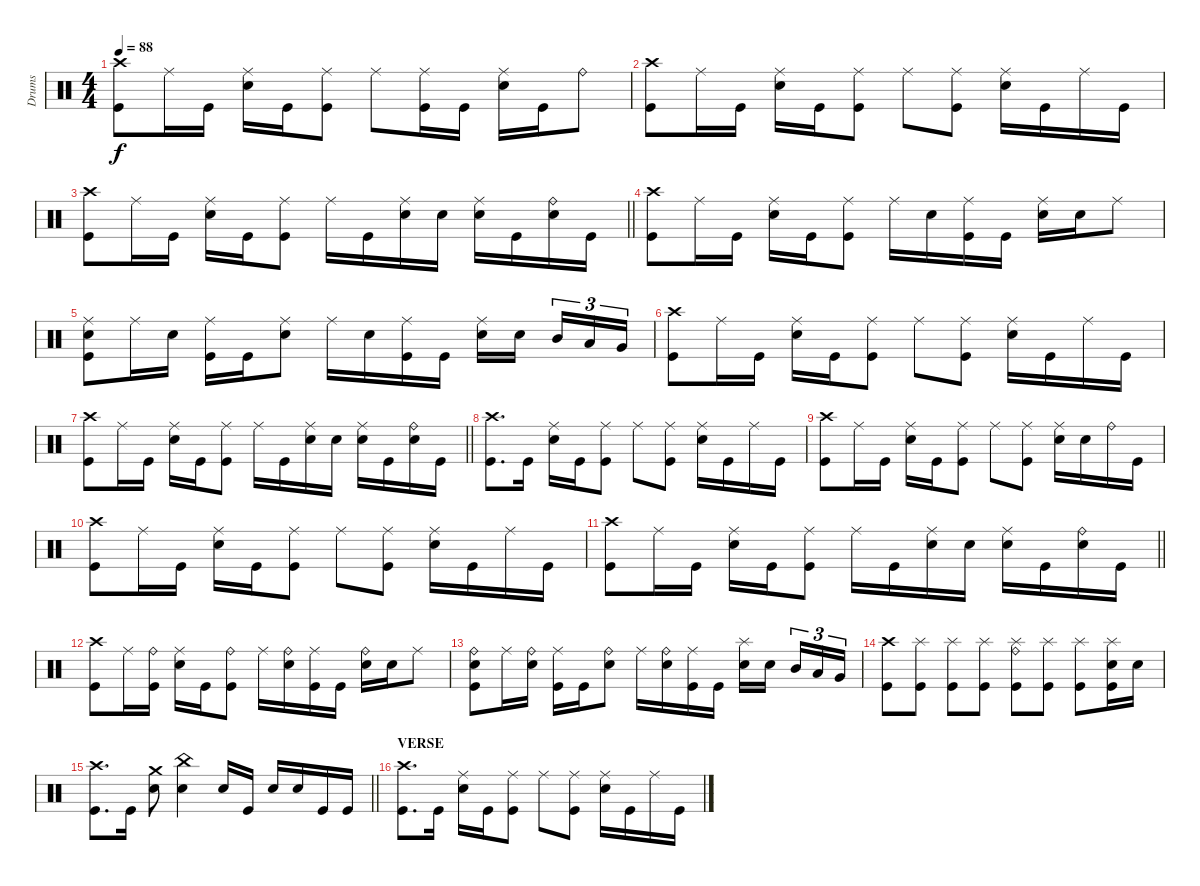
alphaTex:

\track ("Drums" "Drums") {instrument percussion}
\staff
\articulation defaults
\ts (4 4)
\tempo 88
\clef neutral
\ks c
("Crash high (hit)" "Kick (hit)").8{dy f} "Ride (middle)".16 "Kick (hit)".16 ("Ride (middle)" "Electric Snare (hit)").16 "Kick (hit)".16 ("Ride (middle)" "Kick (hit)").8 "Ride (middle)".8 ("Ride (middle)" "Kick (hit)").16 "Kick (hit)".16 ("Ride (middle)" "Electric Snare (hit)").16 "Kick (hit)".16 "Ride (bell)".8 |
("Crash high (hit)" "Kick (hit)").8 "Ride (middle)".16 "Kick (hit)".16 ("Ride (middle)" "Electric Snare (hit)").16 "Kick (hit)".16 ("Ride (middle)" "Kick (hit)").8 "Ride (middle)".8 ("Ride (middle)" "Kick (hit)").8 ("Ride (middle)" "Electric Snare (hit)").16 "Kick (hit)".16 "Ride (middle)".16 "Kick (hit)".16 |
\barLineRight lightlight
("Crash high (hit)" "Kick (hit)").8 "Ride (middle)".16 "Kick (hit)".16 ("Ride (middle)" "Electric Snare (hit)").16 "Kick (hit)".16 ("Ride (middle)" "Kick (hit)").8 "Ride (middle)".16 "Kick (hit)".16 ("Ride (middle)" "Electric Snare (hit)").16 "Electric Snare (hit)".16 ("Ride (middle)" "Electric Snare (hit)").16 "Kick (hit)".16 ("Ride (bell)" "Electric Snare (hit)").16 "Kick (hit)".16 |
("Crash high (hit)" "Kick (hit)").8 "Ride (middle)".16 "Kick (hit)".16 ("Ride (middle)" "Electric Snare (hit)").16 "Kick (hit)".16 ("Ride (middle)" "Kick (hit)").8 "Ride (middle)".16 "Electric Snare (hit)".16 ("Ride (middle)" "Kick (hit)").16 "Kick (hit)".16 ("Ride (middle)" "Electric Snare (hit)").16 "Electric Snare (hit)".16 "Ride (middle)".8 |
("Ride (middle)" "Electric Snare (hit)" "Kick (hit)").8 "Ride (middle)".16 "Electric Snare (hit)".16 ("Ride (middle)" "Kick (hit)").16 "Kick (hit)".16 ("Ride (middle)" "Electric Snare (hit)").8 "Ride (middle)".16 "Electric Snare (hit)".16 ("Ride (middle)" "Kick (hit)").16 "Kick (hit)".16 ("Ride (middle)" "Electric Snare (hit)").16 "Electric Snare (hit)".16{beam splitsecondary} "Mid Tom (hit)".16{tu (3 2)} "Low Tom (hit)".16{tu (3 2)} "Very Low Tom (hit)".16{tu (3 2)} |
("Crash high (hit)" "Kick (hit)").8 "Ride (middle)".16 "Kick (hit)".16 ("Ride (middle)" "Electric Snare (hit)").16 "Kick (hit)".16 ("Ride (middle)" "Kick (hit)").8 "Ride (middle)".8 ("Ride (middle)" "Kick (hit)").8 ("Ride (middle)" "Electric Snare (hit)").16 "Kick (hit)".16 "Ride (middle)".16 "Kick (hit)".16 |
\barLineRight lightlight
("Crash high (hit)" "Kick (hit)").8 "Ride (middle)".16 "Kick (hit)".16 ("Ride (middle)" "Electric Snare (hit)").16 "Kick (hit)".16 ("Ride (middle)" "Kick (hit)").8 "Ride (middle)".16 "Kick (hit)".16 ("Ride (middle)" "Electric Snare (hit)").16 "Electric Snare (hit)".16 ("Ride (middle)" "Electric Snare (hit)").16 "Kick (hit)".16 ("Ride (bell)" "Electric Snare (hit)").16 "Kick (hit)".16 |
("Crash high (hit)" "Kick (hit)").8{d} "Kick (hit)".16 ("Ride (middle)" "Electric Snare (hit)").16 "Kick (hit)".16 ("Ride (middle)" "Kick (hit)").8 "Ride (middle)".8 ("Ride (middle)" "Kick (hit)").8 ("Ride (middle)" "Electric Snare (hit)").16 "Kick (hit)".16 "Ride (middle)".16 "Kick (hit)".16 |
("Crash high (hit)" "Kick (hit)").8 "Ride (middle)".16 "Kick (hit)".16 ("Ride (middle)" "Electric Snare (hit)").16 "Kick (hit)".16 ("Ride (middle)" "Kick (hit)").8 "Ride (middle)".8 ("Ride (middle)" "Kick (hit)").8 ("Ride (middle)" "Electric Snare (hit)").16 "Electric Snare (hit)".16 "Ride (bell)".16 "Kick (hit)".16 |
("Crash high (hit)" "Kick (hit)").8 "Ride (middle)".16 "Kick (hit)".16 ("Ride (middle)" "Electric Snare (hit)").16 "Kick (hit)".16 ("Ride (middle)" "Kick (hit)").8 "Ride (middle)".8 ("Ride (middle)" "Kick (hit)").8 ("Ride (middle)" "Electric Snare (hit)").16 "Kick (hit)".16 "Ride (middle)".16 "Kick (hit)".16 |
\barLineRight lightlight
("Crash high (hit)" "Kick (hit)").8 "Ride (middle)".16 "Kick (hit)".16 ("Ride (middle)" "Electric Snare (hit)").16 "Kick (hit)".16 ("Ride (middle)" "Kick (hit)").8 "Ride (middle)".16 "Kick (hit)".16 ("Ride (middle)" "Electric Snare (hit)").16 "Electric Snare (hit)".16 ("Ride (middle)" "Electric Snare (hit)").16 "Kick (hit)".16 ("Ride (bell)" "Electric Snare (hit)").16 "Kick (hit)".16 |
("Crash high (hit)" "Kick (hit)").8 "Ride (middle)".16 ("Ride (bell)" "Kick (hit)").16 ("Ride (middle)" "Electric Snare (hit)").16 "Kick (hit)".16 ("Ride (bell)" "Kick (hit)").8 "Ride (middle)".16 ("Ride (bell)" "Electric Snare (hit)").16 ("Ride (middle)" "Kick (hit)").16 "Kick (hit)".16 ("Ride (bell)" "Electric Snare (hit)").16 "Electric Snare (hit)".16 "Ride (middle)".8 |
("Ride (bell)" "Electric Snare (hit)" "Kick (hit)").8 "Ride (middle)".16 ("Ride (bell)" "Electric Snare (hit)").16 ("Ride (middle)" "Kick (hit)").16 "Kick (hit)".16 ("Ride (bell)" "Electric Snare (hit)").8 "Ride (middle)".16 ("Ride (bell)" "Electric Snare (hit)").16 ("Ride (middle)" "Kick (hit)").16 "Kick (hit)".16 ("Splash (hit)" "Electric Snare (hit)").16 "Electric Snare (hit)".16{beam splitsecondary} "Mid Tom (hit)".16{tu (3 2)} "Low Tom (hit)".16{tu (3 2)} "Very Low Tom (hit)".16{tu (3 2)} |
("Crash high (hit)" "Kick (hit)").8 ("Splash (hit)" "Kick (hit)").8 ("Splash (hit)" "Kick (hit)").8 ("Splash (hit)" "Kick (hit)").8 ("Splash (hit)" "Ride (bell)" "Kick (hit)").8 ("Splash (hit)" "Kick (hit)").8 ("Splash (hit)" "Kick (hit)").8 ("Splash (hit)" "Electric Snare (hit)" "Kick (hit)").16 "Electric Snare (hit)".16 |
\barLineRight lightlight
("Crash high (hit)" "Kick (hit)").8{d} "Kick (hit)".16 ("Crash medium (hit)" "Electric Snare (hit)").8 ("China (hit)" "Electric Snare (hit)").4 "Electric Snare (hit)".16 "Kick (hit)".16 "Electric Snare (hit)".16 "Electric Snare (hit)".16 "Kick (hit)".16 "Kick (hit)".16 |
\section ("" "VERSE")
("Crash high (hit)" "Kick (hit)").8{d} "Kick (hit)".16 ("Ride (middle)" "Electric Snare (hit)").16 "Kick (hit)".16 ("Ride (middle)" "Kick (hit)").8 "Ride (middle)".8 ("Ride (middle)" "Kick (hit)").8 ("Ride (middle)" "Electric Snare (hit)").16 "Kick (hit)".16 "Ride (middle)".16 "Kick (hit)".16
